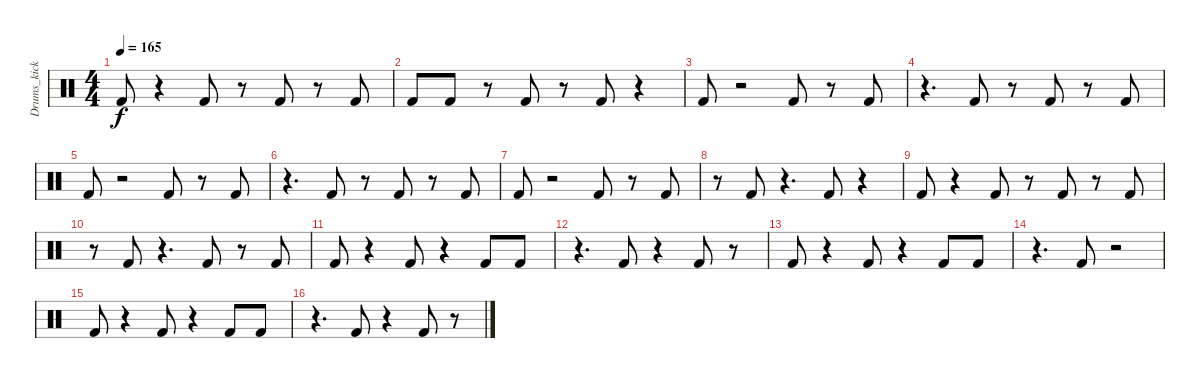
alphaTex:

\track ("Drums_kick" "Drums_kick") {instrument percussion}
\staff {score}
\articulation defaults
\ts (4 4)
\tempo 165
\clef neutral
\ks c "Kick (hit) 2".8{dy f}
r.4 "Kick (hit) 2".8 r.8 "Kick (hit) 2".8 r.8 "Kick (hit) 2".8 |
"Kick (hit) 2".8 "Kick (hit) 2".8 r.8 "Kick (hit) 2".8 r.8 "Kick (hit) 2".8 r.4 |
"Kick (hit) 2".8 r.2 "Kick (hit) 2".8 r.8 "Kick (hit) 2".8 |
r.4{d} "Kick (hit) 2".8 r.8 "Kick (hit) 2".8 r.8 "Kick (hit) 2".8 |
"Kick (hit) 2".8 r.2 "Kick (hit) 2".8 r.8 "Kick (hit) 2".8 |
r.4{d} "Kick (hit) 2".8 r.8 "Kick (hit) 2".8 r.8 "Kick (hit) 2".8 |
"Kick (hit) 2".8 r.2 "Kick (hit) 2".8 r.8 "Kick (hit) 2".8 |
r.8 "Kick (hit) 2".8 r.4{d} "Kick (hit) 2".8 r.4 |
"Kick (hit) 2".8 r.4 "Kick (hit) 2".8 r.8 "Kick (hit) 2".8 r.8 "Kick (hit) 2".8 |
r.8 "Kick (hit) 2".8 r.4{d} "Kick (hit) 2".8 r.8 "Kick (hit) 2".8 |
"Kick (hit) 2".8 r.4 "Kick (hit) 2".8 r.4 "Kick (hit) 2".8 "Kick (hit) 2".8 |
r.4{d} "Kick (hit) 2".8 r.4 "Kick (hit) 2".8 r.8 |
"Kick (hit) 2".8 r.4 "Kick (hit) 2".8 r.4 "Kick (hit) 2".8 "Kick (hit) 2".8 |
r.4{d} "Kick (hit) 2".8 r.2 |
"Kick (hit) 2".8 r.4 "Kick (hit) 2".8 r.4 "Kick (hit) 2".8 "Kick (hit) 2".8 |
r.4{d} "Kick (hit) 2".8 r.4 "Kick (hit) 2".8 r.8
